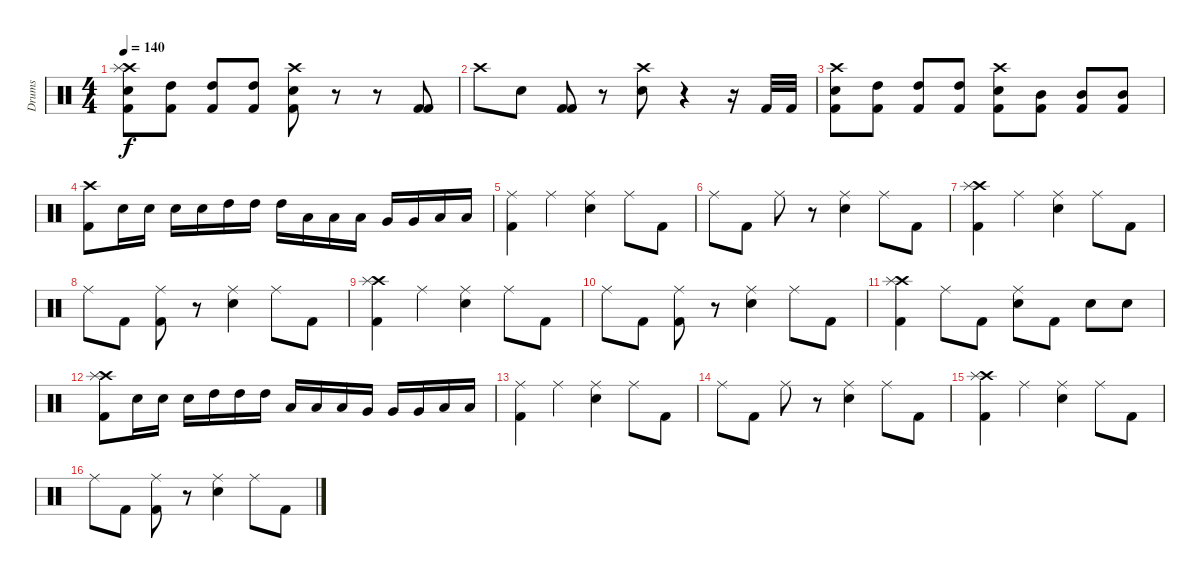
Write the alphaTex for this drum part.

\track ("Drums" "Drums") {instrument percussion}
\staff {score}
\articulation defaults
\ts (4 4)
\tempo 140
\clef neutral
\ks c
("Crash high (hit)" "Splash (hit)" "Electric Snare (hit)" "Kick (hit) 2").8{dy f} ("High Tom (hit)" "Kick (hit) 2").8 ("High Tom (hit)" "Kick (hit) 2").8 ("High Tom (hit)" "Kick (hit) 2").8 ("Crash high (hit)" "Electric Snare (hit)" "Kick (hit) 2").8 r.8 r.8 ("Kick (hit) 2" "Kick (hit) 2").8 |
"Crash high (hit)".8 "Electric Snare (hit)".8 ("Kick (hit) 2" "Kick (hit) 2").8 r.8 ("Crash high (hit)" "Electric Snare (hit)").8 r.4 r.16 "Kick (hit) 2".32 "Kick (hit) 2".32 |
("Crash high (hit)" "Electric Snare (hit)" "Kick (hit) 2").8 ("High Tom (hit)" "Kick (hit) 2").8 ("High Tom (hit)" "Kick (hit) 2").8 ("High Tom (hit)" "Kick (hit) 2").8 ("Crash high (hit)" "Electric Snare (hit)" "Kick (hit) 2").8 ("Mid Tom (hit)" "Kick (hit) 2").8 ("Mid Tom (hit)" "Kick (hit) 2").8 ("Mid Tom (hit)" "Kick (hit) 2").8 |
("Crash high (hit)" "Kick (hit) 2").8 "Electric Snare (hit)".16 "Electric Snare (hit)".16 "Electric Snare (hit)".16 "Electric Snare (hit)".16 "High Tom (hit)".16 "High Tom (hit)".16 "High Tom (hit)".16 "Low Tom (hit)".16 "Low Tom (hit)".16 "Low Tom (hit)".16 "Very Low Tom (hit)".16 "Very Low Tom (hit)".16 "Low Floor Tom (hit)".16 "Low Floor Tom (hit)".16 |
("Ride (middle)" "Kick (hit) 2").4 "Ride (middle)".4 ("Ride (middle)" "Electric Snare (hit)").4 "Ride (middle)".8 "Kick (hit) 2".8 |
"Ride (middle)".8 "Kick (hit) 2".8 "Ride (middle)".8 r.8 ("Ride (middle)" "Electric Snare (hit)").4 "Ride (middle)".8 "Kick (hit) 2".8 |
("Crash high (hit)" "Splash (hit)" "Kick (hit) 2").4 "Ride (middle)".4 ("Ride (middle)" "Electric Snare (hit)").4 "Ride (middle)".8 "Kick (hit) 2".8 |
"Ride (middle)".8 "Kick (hit) 2".8 ("Ride (middle)" "Kick (hit) 2").8 r.8 ("Ride (middle)" "Electric Snare (hit)").4 "Ride (middle)".8 "Kick (hit) 2".8 |
("Crash high (hit)" "Splash (hit)" "Kick (hit) 2").4 "Ride (middle)".4 ("Ride (middle)" "Electric Snare (hit)").4 "Ride (middle)".8 "Kick (hit) 2".8 |
"Ride (middle)".8 "Kick (hit) 2".8 ("Ride (middle)" "Kick (hit) 2").8 r.8 ("Ride (middle)" "Electric Snare (hit)").4 "Ride (middle)".8 "Kick (hit) 2".8 |
("Crash high (hit)" "Splash (hit)" "Kick (hit) 2").4 "Ride (middle)".8 "Kick (hit) 2".8 ("Ride (middle)" "Electric Snare (hit)").8 "Kick (hit) 2".8 "Electric Snare (hit)".8 "Electric Snare (hit)".8 |
("Crash high (hit)" "Splash (hit)" "Kick (hit) 2").8 "Electric Snare (hit)".16 "Electric Snare (hit)".16 "Electric Snare (hit)".16 "High Tom (hit)".16 "High Tom (hit)".16 "High Tom (hit)".16 "Low Tom (hit)".16 "Low Tom (hit)".16 "Low Tom (hit)".16 "Very Low Tom (hit)".16 "Very Low Tom (hit)".16 "Very Low Tom (hit)".16 "Low Floor Tom (hit)".16 "Low Floor Tom (hit)".16 |
("Ride (middle)" "Kick (hit) 2").4 "Ride (middle)".4 ("Ride (middle)" "Electric Snare (hit)").4 "Ride (middle)".8 "Kick (hit) 2".8 |
"Ride (middle)".8 "Kick (hit) 2".8 "Ride (middle)".8 r.8 ("Ride (middle)" "Electric Snare (hit)").4 "Ride (middle)".8 "Kick (hit) 2".8 |
("Crash high (hit)" "Splash (hit)" "Kick (hit) 2").4 "Ride (middle)".4 ("Ride (middle)" "Electric Snare (hit)").4 "Ride (middle)".8 "Kick (hit) 2".8 |
"Ride (middle)".8 "Kick (hit) 2".8 ("Ride (middle)" "Kick (hit) 2").8 r.8 ("Ride (middle)" "Electric Snare (hit)").4 "Ride (middle)".8 "Kick (hit) 2".8
